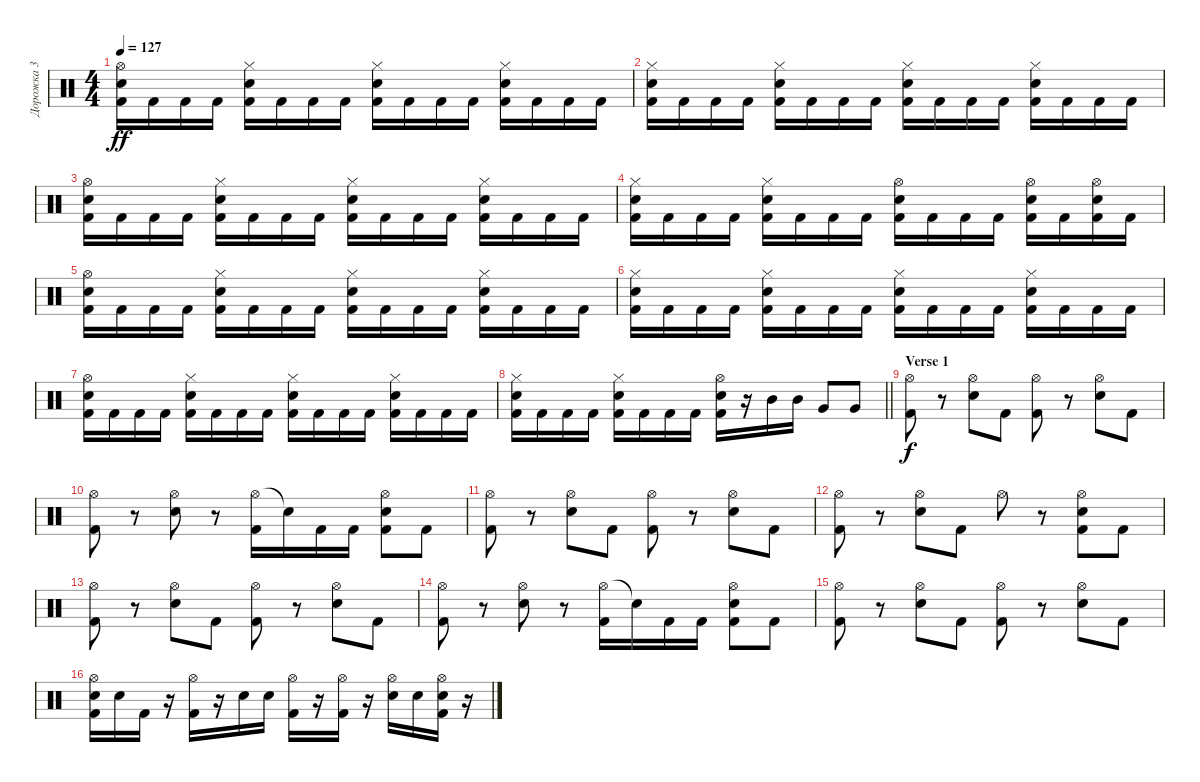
\track ("Дорожка 3" "Дорожка 3") {instrument percussion}
\staff {score}
\articulation defaults
\ts (4 4)
\tempo 127
\clef neutral
\ks c
("Hi-Hat (open)" "Electric Snare (hit)" "Kick (hit) 2").16{dy ff} "Kick (hit) 2".16 "Kick (hit) 2".16 "Kick (hit) 2".16 ("Hi-Hat (closed)" "Electric Snare (hit)" "Kick (hit) 2").16 "Kick (hit) 2".16 "Kick (hit) 2".16 "Kick (hit) 2".16 ("Hi-Hat (closed)" "Electric Snare (hit)" "Kick (hit) 2").16 "Kick (hit) 2".16 "Kick (hit) 2".16 "Kick (hit) 2".16 ("Hi-Hat (closed)" "Electric Snare (hit)" "Kick (hit) 2").16 "Kick (hit) 2".16 "Kick (hit) 2".16 "Kick (hit) 2".16 |
("Hi-Hat (closed)" "Electric Snare (hit)" "Kick (hit) 2").16 "Kick (hit) 2".16 "Kick (hit) 2".16 "Kick (hit) 2".16 ("Hi-Hat (closed)" "Electric Snare (hit)" "Kick (hit) 2").16 "Kick (hit) 2".16 "Kick (hit) 2".16 "Kick (hit) 2".16 ("Hi-Hat (closed)" "Electric Snare (hit)" "Kick (hit) 2").16 "Kick (hit) 2".16 "Kick (hit) 2".16 "Kick (hit) 2".16 ("Hi-Hat (closed)" "Electric Snare (hit)" "Kick (hit) 2").16 "Kick (hit) 2".16 "Kick (hit) 2".16 "Kick (hit) 2".16 |
("Hi-Hat (open)" "Electric Snare (hit)" "Kick (hit) 2").16 "Kick (hit) 2".16 "Kick (hit) 2".16 "Kick (hit) 2".16 ("Hi-Hat (closed)" "Electric Snare (hit)" "Kick (hit) 2").16 "Kick (hit) 2".16 "Kick (hit) 2".16 "Kick (hit) 2".16 ("Hi-Hat (closed)" "Electric Snare (hit)" "Kick (hit) 2").16 "Kick (hit) 2".16 "Kick (hit) 2".16 "Kick (hit) 2".16 ("Hi-Hat (closed)" "Electric Snare (hit)" "Kick (hit) 2").16 "Kick (hit) 2".16 "Kick (hit) 2".16 "Kick (hit) 2".16 |
("Hi-Hat (closed)" "Electric Snare (hit)" "Kick (hit) 2").16 "Kick (hit) 2".16 "Kick (hit) 2".16 "Kick (hit) 2".16 ("Hi-Hat (closed)" "Electric Snare (hit)" "Kick (hit) 2").16 "Kick (hit) 2".16 "Kick (hit) 2".16 "Kick (hit) 2".16 ("Hi-Hat (open)" "Electric Snare (hit)" "Kick (hit) 2").16 "Kick (hit) 2".16 "Kick (hit) 2".16 "Kick (hit) 2".16 ("Hi-Hat (open)" "Electric Snare (hit)" "Kick (hit) 2").16 "Kick (hit) 2".16 ("Hi-Hat (open)" "Electric Snare (hit)" "Kick (hit) 2").16 "Kick (hit) 2".16 |
("Hi-Hat (open)" "Electric Snare (hit)" "Kick (hit) 2").16 "Kick (hit) 2".16 "Kick (hit) 2".16 "Kick (hit) 2".16 ("Hi-Hat (closed)" "Electric Snare (hit)" "Kick (hit) 2").16 "Kick (hit) 2".16 "Kick (hit) 2".16 "Kick (hit) 2".16 ("Hi-Hat (closed)" "Electric Snare (hit)" "Kick (hit) 2").16 "Kick (hit) 2".16 "Kick (hit) 2".16 "Kick (hit) 2".16 ("Hi-Hat (closed)" "Electric Snare (hit)" "Kick (hit) 2").16 "Kick (hit) 2".16 "Kick (hit) 2".16 "Kick (hit) 2".16 |
("Hi-Hat (closed)" "Electric Snare (hit)" "Kick (hit) 2").16 "Kick (hit) 2".16 "Kick (hit) 2".16 "Kick (hit) 2".16 ("Hi-Hat (closed)" "Electric Snare (hit)" "Kick (hit) 2").16 "Kick (hit) 2".16 "Kick (hit) 2".16 "Kick (hit) 2".16 ("Hi-Hat (closed)" "Electric Snare (hit)" "Kick (hit) 2").16 "Kick (hit) 2".16 "Kick (hit) 2".16 "Kick (hit) 2".16 ("Hi-Hat (closed)" "Electric Snare (hit)" "Kick (hit) 2").16 "Kick (hit) 2".16 "Kick (hit) 2".16 "Kick (hit) 2".16 |
("Hi-Hat (open)" "Electric Snare (hit)" "Kick (hit) 2").16 "Kick (hit) 2".16 "Kick (hit) 2".16 "Kick (hit) 2".16 ("Hi-Hat (closed)" "Electric Snare (hit)" "Kick (hit) 2").16 "Kick (hit) 2".16 "Kick (hit) 2".16 "Kick (hit) 2".16 ("Hi-Hat (closed)" "Electric Snare (hit)" "Kick (hit) 2").16 "Kick (hit) 2".16 "Kick (hit) 2".16 "Kick (hit) 2".16 ("Hi-Hat (closed)" "Electric Snare (hit)" "Kick (hit) 2").16 "Kick (hit) 2".16 "Kick (hit) 2".16 "Kick (hit) 2".16 |
\barLineRight lightlight
("Hi-Hat (closed)" "Electric Snare (hit)" "Kick (hit) 2").16 "Kick (hit) 2".16 "Kick (hit) 2".16 "Kick (hit) 2".16 ("Hi-Hat (closed)" "Electric Snare (hit)" "Kick (hit) 2").16 "Kick (hit) 2".16 "Kick (hit) 2".16 "Kick (hit) 2".16 ("Hi-Hat (open)" "Electric Snare (hit)" "Kick (hit) 2").16 r.16 "Mid Tom (hit)".16 "Mid Tom (hit)".16 "Very Low Tom (hit)".8 "Very Low Tom (hit)".8 |
\section ("" "Verse 1")
("Hi-Hat (open)" "Kick (hit) 2").8{dy f} r.8 ("Hi-Hat (open)" "Electric Snare (hit)").8 "Kick (hit) 2".8 ("Hi-Hat (open)" "Kick (hit) 2").8 r.8 ("Hi-Hat (open)" "Electric Snare (hit)").8 "Kick (hit) 2".8 |
("Hi-Hat (open)" "Kick (hit) 2").8 r.8 ("Hi-Hat (open)" "Electric Snare (hit)").8 r.8 ("Hi-Hat (open)" "Kick (hit) 2").16 "Snare (hit)"{t}.16 "Kick (hit) 2".16 "Kick (hit) 2".16 ("Hi-Hat (open)" "Electric Snare (hit)" "Kick (hit) 2").8 "Kick (hit) 2".8 |
("Hi-Hat (open)" "Kick (hit) 2").8 r.8 ("Hi-Hat (open)" "Electric Snare (hit)").8 "Kick (hit) 2".8 ("Hi-Hat (open)" "Kick (hit) 2").8 r.8 ("Hi-Hat (open)" "Electric Snare (hit)").8 "Kick (hit) 2".8 |
("Hi-Hat (open)" "Kick (hit) 2").8 r.8 ("Hi-Hat (open)" "Electric Snare (hit)").8 "Kick (hit) 2".8 "Hi-Hat (open)".8 r.8 ("Hi-Hat (open)" "Electric Snare (hit)" "Kick (hit) 2").8 "Kick (hit) 2".8 |
("Hi-Hat (open)" "Kick (hit) 2").8 r.8 ("Hi-Hat (open)" "Electric Snare (hit)").8 "Kick (hit) 2".8 ("Hi-Hat (open)" "Kick (hit) 2").8 r.8 ("Hi-Hat (open)" "Electric Snare (hit)").8 "Kick (hit) 2".8 |
("Hi-Hat (open)" "Kick (hit) 2").8 r.8 ("Hi-Hat (open)" "Electric Snare (hit)").8 r.8 ("Hi-Hat (open)" "Kick (hit) 2").16 "Snare (hit)"{t}.16 "Kick (hit) 2".16 "Kick (hit) 2".16 ("Hi-Hat (open)" "Electric Snare (hit)" "Kick (hit) 2").8 "Kick (hit) 2".8 |
("Hi-Hat (open)" "Kick (hit) 2").8 r.8 ("Hi-Hat (open)" "Electric Snare (hit)").8 "Kick (hit) 2".8 ("Hi-Hat (open)" "Kick (hit) 2").8 r.8 ("Hi-Hat (open)" "Electric Snare (hit)").8 "Kick (hit) 2".8 |
("Hi-Hat (open)" "Electric Snare (hit)" "Kick (hit) 2").16 "Electric Snare (hit)".16 "Kick (hit) 2".16 r.16 ("Hi-Hat (open)" "Kick (hit) 2").16 r.16 "Electric Snare (hit)".16 "Electric Snare (hit)".16 ("Hi-Hat (open)" "Kick (hit) 2").16 r.16 ("Hi-Hat (open)" "Kick (hit) 2").16 r.16 ("Hi-Hat (open)" "Electric Snare (hit)").16 "Electric Snare (hit)".16 ("Hi-Hat (open)" "Electric Snare (hit)" "Kick (hit) 2").16 r.16
